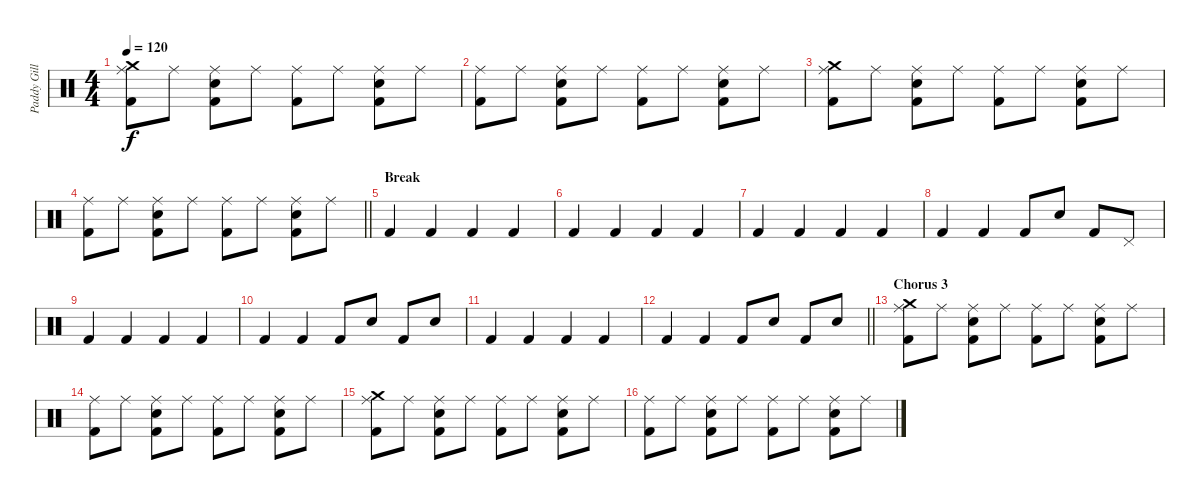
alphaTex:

\track ("Paddy Gillespie" "Paddy Gill") {instrument percussion}
\staff {score}
\articulation defaults
\ts (4 4)
\tempo 120
\clef neutral
\ks c
("Kick (hit) 2" "Crash medium (hit)" "Ride (middle)").8{dy f} "Ride (middle)".8 ("Kick (hit) 2" "Ride (middle)" "Snare (hit) 2").8 "Ride (middle)".8 ("Kick (hit) 2" "Ride (middle)").8 "Ride (middle)".8 ("Kick (hit) 2" "Ride (middle)" "Snare (hit) 2").8 "Ride (middle)".8 |
("Kick (hit) 2" "Ride (middle)").8 "Ride (middle)".8 ("Kick (hit) 2" "Ride (middle)" "Snare (hit) 2").8 "Ride (middle)".8 ("Kick (hit) 2" "Ride (middle)").8 "Ride (middle)".8 ("Kick (hit) 2" "Ride (middle)" "Snare (hit) 2").8 "Ride (middle)".8 |
("Kick (hit) 2" "Crash medium (hit)" "Ride (middle)").8 "Ride (middle)".8 ("Kick (hit) 2" "Ride (middle)" "Snare (hit) 2").8 "Ride (middle)".8 ("Kick (hit) 2" "Ride (middle)").8 "Ride (middle)".8 ("Kick (hit) 2" "Ride (middle)" "Snare (hit) 2").8 "Ride (middle)".8 |
\barLineRight lightlight
("Kick (hit) 2" "Ride (middle)").8 "Ride (middle)".8 ("Kick (hit) 2" "Ride (middle)" "Snare (hit) 2").8 "Ride (middle)".8 ("Kick (hit) 2" "Ride (middle)").8 "Ride (middle)".8 ("Kick (hit) 2" "Ride (middle)" "Snare (hit) 2").8 "Ride (middle)".8 |
\section ("" "Break")
"Kick (hit) 2".4 "Kick (hit) 2".4 "Kick (hit) 2".4 "Kick (hit) 2".4 |
"Kick (hit) 2".4 "Kick (hit) 2".4 "Kick (hit) 2".4 "Kick (hit) 2".4 |
"Kick (hit) 2".4 "Kick (hit) 2".4 "Kick (hit) 2".4 "Kick (hit) 2".4 |
"Kick (hit) 2".4 "Kick (hit) 2".4 "Kick (hit) 2".8 "Snare (hit) 2".8 "Kick (hit) 2".8 "Pedal Hi-Hat (hit)".8 |
"Kick (hit) 2".4 "Kick (hit) 2".4 "Kick (hit) 2".4 "Kick (hit) 2".4 |
"Kick (hit) 2".4 "Kick (hit) 2".4 "Kick (hit) 2".8 "Snare (hit) 2".8 "Kick (hit) 2".8 "Snare (hit) 2".8 |
"Kick (hit) 2".4 "Kick (hit) 2".4 "Kick (hit) 2".4 "Kick (hit) 2".4 |
\barLineRight lightlight "Kick (hit) 2".4 "Kick (hit) 2".4 "Kick (hit) 2".8 "Snare (hit) 2".8 "Kick (hit) 2".8 "Snare (hit) 2".8
|
\section ("" "Chorus 3")
("Kick (hit) 2" "Crash medium (hit)" "Ride (middle)").8 "Ride (middle)".8 ("Kick (hit) 2" "Ride (middle)" "Snare (hit) 2").8 "Ride (middle)".8 ("Kick (hit) 2" "Ride (middle)").8 "Ride (middle)".8 ("Kick (hit) 2" "Ride (middle)" "Snare (hit) 2").8 "Ride (middle)".8 |
("Kick (hit) 2" "Ride (middle)").8 "Ride (middle)".8 ("Kick (hit) 2" "Ride (middle)" "Snare (hit) 2").8 "Ride (middle)".8 ("Kick (hit) 2" "Ride (middle)").8 "Ride (middle)".8 ("Kick (hit) 2" "Ride (middle)" "Snare (hit) 2").8 "Ride (middle)".8 |
("Kick (hit) 2" "Crash medium (hit)" "Ride (middle)").8 "Ride (middle)".8 ("Kick (hit) 2" "Ride (middle)" "Snare (hit) 2").8 "Ride (middle)".8 ("Kick (hit) 2" "Ride (middle)").8 "Ride (middle)".8 ("Kick (hit) 2" "Ride (middle)" "Snare (hit) 2").8 "Ride (middle)".8 |
("Kick (hit) 2" "Ride (middle)").8 "Ride (middle)".8 ("Kick (hit) 2" "Ride (middle)" "Snare (hit) 2").8 "Ride (middle)".8 ("Kick (hit) 2" "Ride (middle)").8 "Ride (middle)".8 ("Kick (hit) 2" "Ride (middle)" "Snare (hit) 2").8 "Ride (middle)".8
